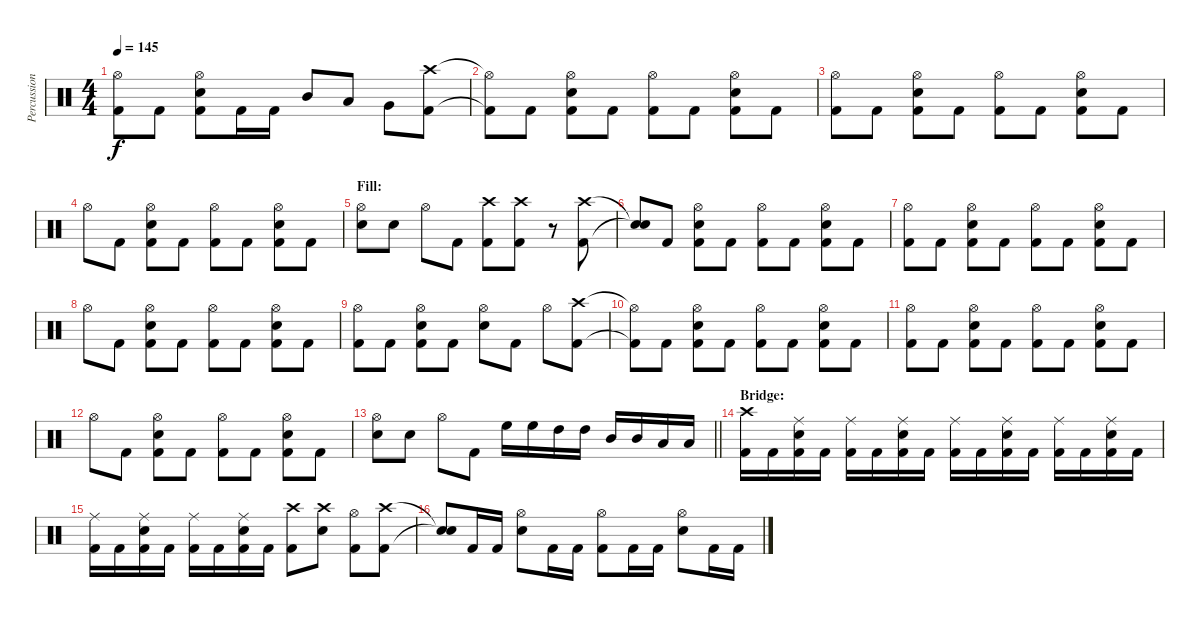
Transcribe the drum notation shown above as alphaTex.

\track ("Percussion" "Percussion") {instrument percussion}
\staff {score}
\articulation defaults
\ts (4 4)
\tempo 145
\clef neutral
\ks c
("Hi-Hat (open)" "Kick (hit) 2").8{dy f} "Kick (hit) 2".8 ("Hi-Hat (open)" "Electric Snare (hit)" "Kick (hit) 2").8 "Kick (hit) 2".16 "Kick (hit) 2".16 "Mid Tom (hit)".8 "Low Tom (hit)".8 "Very Low Tom (hit)".8 ("Crash high (hit)" "Kick (hit) 2").8 |
("Hi-Hat (open)"{t} "Kick (hit) 2"{t}).8 "Kick (hit) 2".8 ("Hi-Hat (open)" "Electric Snare (hit)" "Kick (hit) 2").8 "Kick (hit) 2".8 ("Hi-Hat (open)" "Kick (hit) 2").8 "Kick (hit) 2".8 ("Hi-Hat (open)" "Electric Snare (hit)" "Kick (hit) 2").8 "Kick (hit) 2".8 |
("Hi-Hat (open)" "Kick (hit) 2").8 "Kick (hit) 2".8 ("Hi-Hat (open)" "Electric Snare (hit)" "Kick (hit) 2").8 "Kick (hit) 2".8 ("Hi-Hat (open)" "Kick (hit) 2").8 "Kick (hit) 2".8 ("Hi-Hat (open)" "Electric Snare (hit)" "Kick (hit) 2").8 "Kick (hit) 2".8 |
"Hi-Hat (open)".8 "Kick (hit) 2".8 ("Hi-Hat (open)" "Electric Snare (hit)" "Kick (hit) 2").8 "Kick (hit) 2".8 ("Hi-Hat (open)" "Kick (hit) 2").8 "Kick (hit) 2".8 ("Hi-Hat (open)" "Electric Snare (hit)" "Kick (hit) 2").8 "Kick (hit) 2".8 |
\section ("" "Fill:")
("Hi-Hat (open)" "Electric Snare (hit)").8 "Electric Snare (hit)".8 "Hi-Hat (open)".8 "Kick (hit) 2".8 ("Crash high (hit)" "Kick (hit) 2").8 ("Crash high (hit)" "Kick (hit) 2").8 r.8 ("Crash high (hit)" "Kick (hit) 2").8 |
("Snare (hit)"{t} "Snare (hit)"{t}).8 "Kick (hit) 2".8 ("Hi-Hat (open)" "Electric Snare (hit)" "Kick (hit) 2").8 "Kick (hit) 2".8 ("Hi-Hat (open)" "Kick (hit) 2").8 "Kick (hit) 2".8 ("Hi-Hat (open)" "Electric Snare (hit)" "Kick (hit) 2").8 "Kick (hit) 2".8 |
("Hi-Hat (open)" "Kick (hit) 2").8 "Kick (hit) 2".8 ("Hi-Hat (open)" "Electric Snare (hit)" "Kick (hit) 2").8 "Kick (hit) 2".8 ("Hi-Hat (open)" "Kick (hit) 2").8 "Kick (hit) 2".8 ("Hi-Hat (open)" "Electric Snare (hit)" "Kick (hit) 2").8 "Kick (hit) 2".8 |
"Hi-Hat (open)".8 "Kick (hit) 2".8 ("Hi-Hat (open)" "Electric Snare (hit)" "Kick (hit) 2").8 "Kick (hit) 2".8 ("Hi-Hat (open)" "Kick (hit) 2").8 "Kick (hit) 2".8 ("Hi-Hat (open)" "Electric Snare (hit)" "Kick (hit) 2").8 "Kick (hit) 2".8 |
("Hi-Hat (open)" "Kick (hit) 2").8 "Kick (hit) 2".8 ("Hi-Hat (open)" "Electric Snare (hit)" "Kick (hit) 2").8 "Kick (hit) 2".8 ("Hi-Hat (open)" "Electric Snare (hit)").8 "Kick (hit) 2".8 "Hi-Hat (open)".8 ("Crash high (hit)" "Kick (hit) 2").8 |
("Hi-Hat (open)"{t} "Kick (hit) 2"{t}).8 "Kick (hit) 2".8 ("Hi-Hat (open)" "Electric Snare (hit)" "Kick (hit) 2").8 "Kick (hit) 2".8 ("Hi-Hat (open)" "Kick (hit) 2").8 "Kick (hit) 2".8 ("Hi-Hat (open)" "Electric Snare (hit)" "Kick (hit) 2").8 "Kick (hit) 2".8 |
("Hi-Hat (open)" "Kick (hit) 2").8 "Kick (hit) 2".8 ("Hi-Hat (open)" "Electric Snare (hit)" "Kick (hit) 2").8 "Kick (hit) 2".8 ("Hi-Hat (open)" "Kick (hit) 2").8 "Kick (hit) 2".8 ("Hi-Hat (open)" "Electric Snare (hit)" "Kick (hit) 2").8 "Kick (hit) 2".8 |
"Hi-Hat (open)".8 "Kick (hit) 2".8 ("Hi-Hat (open)" "Electric Snare (hit)" "Kick (hit) 2").8 "Kick (hit) 2".8 ("Hi-Hat (open)" "Kick (hit) 2").8 "Kick (hit) 2".8 ("Hi-Hat (open)" "Electric Snare (hit)" "Kick (hit) 2").8 "Kick (hit) 2".8 |
\barLineRight lightlight
("Hi-Hat (open)" "Electric Snare (hit)").8 "Electric Snare (hit)".8 "Hi-Hat (open)".8 "Kick (hit) 2".8 "High Floor Tom (hit)".16 "High Floor Tom (hit)".16 "High Tom (hit)".16 "High Tom (hit)".16 "Mid Tom (hit)".16 "Mid Tom (hit)".16 "Low Tom (hit)".16 "Low Tom (hit)".16 |
\section ("" "Bridge:")
("Crash high (hit)" "Kick (hit) 2").16 "Kick (hit) 2".16 ("Ride (middle)" "Electric Snare (hit)" "Kick (hit) 2").16 "Kick (hit) 2".16 ("Ride (middle)" "Kick (hit) 2").16 "Kick (hit) 2".16 ("Ride (middle)" "Electric Snare (hit)" "Kick (hit) 2").16 "Kick (hit) 2".16 ("Ride (middle)" "Kick (hit) 2").16 "Kick (hit) 2".16 ("Ride (middle)" "Electric Snare (hit)" "Kick (hit) 2").16 "Kick (hit) 2".16 ("Ride (middle)" "Kick (hit) 2").16 "Kick (hit) 2".16 ("Ride (middle)" "Electric Snare (hit)" "Kick (hit) 2").16 "Kick (hit) 2".16 |
("Ride (middle)" "Kick (hit) 2").16 "Kick (hit) 2".16 ("Ride (middle)" "Electric Snare (hit)" "Kick (hit) 2").16 "Kick (hit) 2".16 ("Ride (middle)" "Kick (hit) 2").16 "Kick (hit) 2".16 ("Ride (middle)" "Electric Snare (hit)" "Kick (hit) 2").16 "Kick (hit) 2".16 ("Crash high (hit)" "Kick (hit) 2").8 ("Crash high (hit)" "Electric Snare (hit)").8 ("Hi-Hat (open)" "Kick (hit) 2").8 ("Crash high (hit)" "Kick (hit) 2").8 |
("Snare (hit)"{t} "Snare (hit)"{t}).8 "Kick (hit) 2".16 "Kick (hit) 2".16 ("Hi-Hat (open)" "Electric Snare (hit)").8 "Kick (hit) 2".16 "Kick (hit) 2".16 ("Hi-Hat (open)" "Kick (hit) 2").8 "Kick (hit) 2".16 "Kick (hit) 2".16 ("Hi-Hat (open)" "Electric Snare (hit)").8 "Kick (hit) 2".16 "Kick (hit) 2".16
